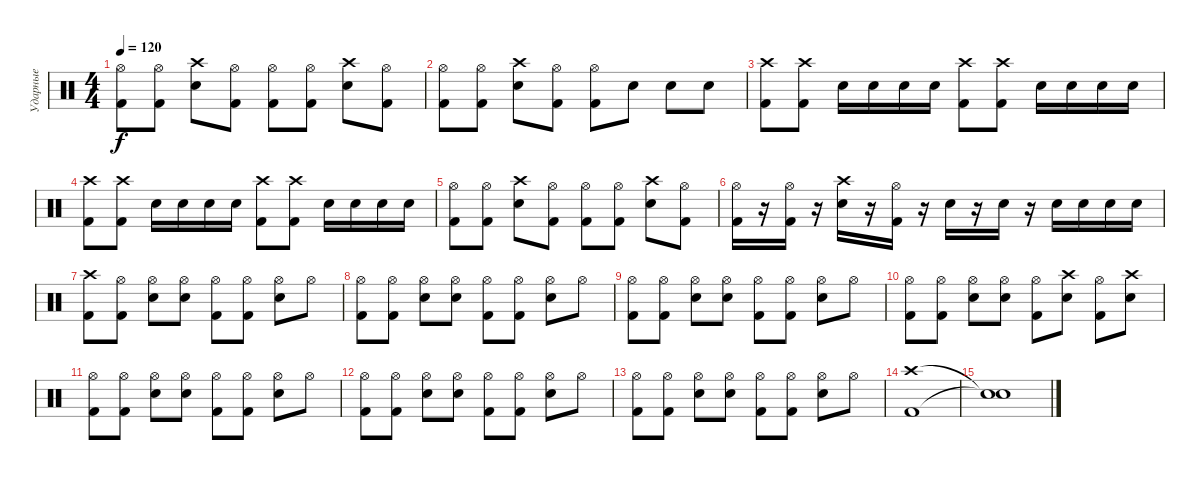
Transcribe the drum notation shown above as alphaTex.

\track ("Ударные" "Ударные") {instrument percussion}
\staff {score}
\articulation defaults
\ts (4 4)
\tempo 120
\clef neutral
\ks c
("Hi-Hat (open)" "Kick (hit) 2").8{dy f} ("Hi-Hat (open)" "Kick (hit) 2").8 ("Crash high (hit)" "Snare (hit) 2").8 ("Hi-Hat (open)" "Kick (hit) 2").8 ("Hi-Hat (open)" "Kick (hit) 2").8 ("Hi-Hat (open)" "Kick (hit) 2").8 ("Crash high (hit)" "Snare (hit) 2").8 ("Hi-Hat (open)" "Kick (hit) 2").8 |
("Hi-Hat (open)" "Kick (hit) 2").8 ("Hi-Hat (open)" "Kick (hit) 2").8 ("Crash high (hit)" "Snare (hit) 2").8 ("Hi-Hat (open)" "Kick (hit) 2").8 ("Hi-Hat (open)" "Kick (hit) 2").8 "Snare (hit) 2".8 "Snare (hit) 2".8 "Snare (hit) 2".8 |
("Crash high (hit)" "Kick (hit) 2").8 ("Crash high (hit)" "Kick (hit) 2").8 "Snare (hit) 2".16 "Snare (hit) 2".16 "Snare (hit) 2".16 "Snare (hit) 2".16 ("Crash high (hit)" "Kick (hit) 2").8 ("Crash high (hit)" "Kick (hit) 2").8 "Snare (hit) 2".16 "Snare (hit) 2".16 "Snare (hit) 2".16 "Snare (hit) 2".16 |
("Crash high (hit)" "Kick (hit) 2").8 ("Crash high (hit)" "Kick (hit) 2").8 "Snare (hit) 2".16 "Snare (hit) 2".16 "Snare (hit) 2".16 "Snare (hit) 2".16 ("Crash high (hit)" "Kick (hit) 2").8 ("Crash high (hit)" "Kick (hit) 2").8 "Snare (hit) 2".16 "Snare (hit) 2".16 "Snare (hit) 2".16 "Snare (hit) 2".16 |
("Hi-Hat (open)" "Kick (hit) 2").8 ("Hi-Hat (open)" "Kick (hit) 2").8 ("Crash high (hit)" "Snare (hit) 2").8 ("Hi-Hat (open)" "Kick (hit) 2").8 ("Hi-Hat (open)" "Kick (hit) 2").8 ("Hi-Hat (open)" "Kick (hit) 2").8 ("Crash high (hit)" "Snare (hit) 2").8 ("Hi-Hat (open)" "Kick (hit) 2").8 |
("Hi-Hat (open)" "Kick (hit) 2").16 r.16 ("Hi-Hat (open)" "Kick (hit) 2").16 r.16 ("Crash high (hit)" "Snare (hit) 2").16 r.16 ("Hi-Hat (open)" "Kick (hit) 2").16 r.16 "Snare (hit) 2".16 r.16 "Snare (hit) 2".16 r.16 "Snare (hit) 2".16 "Snare (hit) 2".16 "Snare (hit) 2".16 "Snare (hit) 2".16 |
("Crash high (hit)" "Kick (hit) 2").8 ("Hi-Hat (open)" "Kick (hit) 2").8 ("Hi-Hat (open)" "Snare (hit) 2").8 ("Hi-Hat (open)" "Snare (hit) 2").8 ("Hi-Hat (open)" "Kick (hit) 2").8 ("Hi-Hat (open)" "Kick (hit) 2").8 ("Hi-Hat (open)" "Snare (hit) 2").8 "Hi-Hat (open)".8 |
("Hi-Hat (open)" "Kick (hit) 2").8 ("Hi-Hat (open)" "Kick (hit) 2").8 ("Hi-Hat (open)" "Snare (hit) 2").8 ("Hi-Hat (open)" "Snare (hit) 2").8 ("Hi-Hat (open)" "Kick (hit) 2").8 ("Hi-Hat (open)" "Kick (hit) 2").8 ("Hi-Hat (open)" "Snare (hit) 2").8 "Hi-Hat (open)".8 |
("Hi-Hat (open)" "Kick (hit) 2").8 ("Hi-Hat (open)" "Kick (hit) 2").8 ("Hi-Hat (open)" "Snare (hit) 2").8 ("Hi-Hat (open)" "Snare (hit) 2").8 ("Hi-Hat (open)" "Kick (hit) 2").8 ("Hi-Hat (open)" "Kick (hit) 2").8 ("Hi-Hat (open)" "Snare (hit) 2").8 "Hi-Hat (open)".8 |
("Hi-Hat (open)" "Kick (hit) 2").8 ("Hi-Hat (open)" "Kick (hit) 2").8 ("Hi-Hat (open)" "Snare (hit) 2").8 ("Hi-Hat (open)" "Snare (hit) 2").8 ("Hi-Hat (open)" "Kick (hit) 2").8 ("Crash high (hit)" "Snare (hit) 2").8 ("Hi-Hat (open)" "Kick (hit) 2").8 ("Crash high (hit)" "Snare (hit) 2").8 |
("Hi-Hat (open)" "Kick (hit) 2").8 ("Hi-Hat (open)" "Kick (hit) 2").8 ("Hi-Hat (open)" "Snare (hit) 2").8 ("Hi-Hat (open)" "Snare (hit) 2").8 ("Hi-Hat (open)" "Kick (hit) 2").8 ("Hi-Hat (open)" "Kick (hit) 2").8 ("Hi-Hat (open)" "Snare (hit) 2").8 "Hi-Hat (open)".8 |
("Hi-Hat (open)" "Kick (hit) 2").8 ("Hi-Hat (open)" "Kick (hit) 2").8 ("Hi-Hat (open)" "Snare (hit) 2").8 ("Hi-Hat (open)" "Snare (hit) 2").8 ("Hi-Hat (open)" "Kick (hit) 2").8 ("Hi-Hat (open)" "Kick (hit) 2").8 ("Hi-Hat (open)" "Snare (hit) 2").8 "Hi-Hat (open)".8 |
("Hi-Hat (open)" "Kick (hit) 2").8 ("Hi-Hat (open)" "Kick (hit) 2").8 ("Hi-Hat (open)" "Snare (hit) 2").8 ("Hi-Hat (open)" "Snare (hit) 2").8 ("Hi-Hat (open)" "Kick (hit) 2").8 ("Hi-Hat (open)" "Kick (hit) 2").8 ("Hi-Hat (open)" "Snare (hit) 2").8 "Hi-Hat (open)".8 |
("Crash high (hit)" "Kick (hit) 2").1 |
("Snare (hit)"{t} "Snare (hit)"{t}).1{volume 10}
